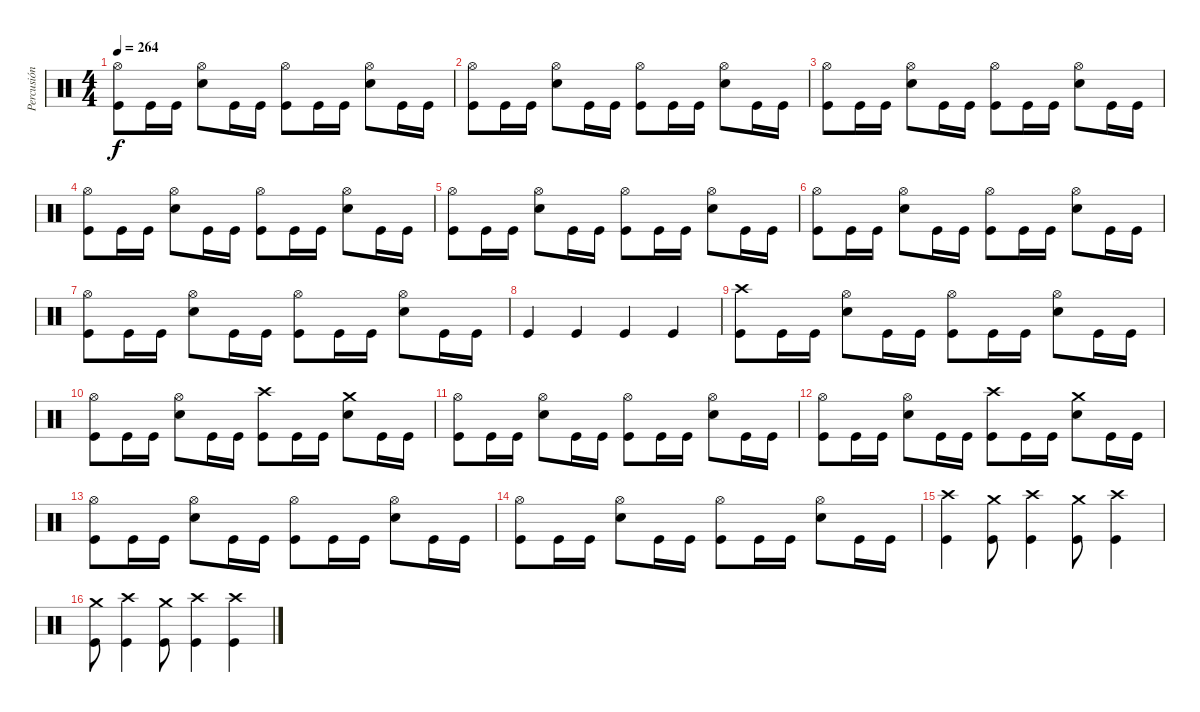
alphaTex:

\track ("Percusión" "Percusión") {instrument percussion}
\staff {score}
\articulation defaults
\ts (4 4)
\tempo 264
\clef neutral
\ks c
("Hi-Hat (open)" "Kick (hit)").8{dy f} "Kick (hit)".16 "Kick (hit)".16 ("Hi-Hat (open)" "Snare (hit) 2").8 "Kick (hit)".16 "Kick (hit)".16 ("Hi-Hat (open)" "Kick (hit)").8 "Kick (hit)".16 "Kick (hit)".16 ("Hi-Hat (open)" "Snare (hit) 2").8 "Kick (hit)".16 "Kick (hit)".16 |
("Hi-Hat (open)" "Kick (hit)").8 "Kick (hit)".16 "Kick (hit)".16 ("Hi-Hat (open)" "Snare (hit) 2").8 "Kick (hit)".16 "Kick (hit)".16 ("Hi-Hat (open)" "Kick (hit)").8 "Kick (hit)".16 "Kick (hit)".16 ("Hi-Hat (open)" "Snare (hit) 2").8 "Kick (hit)".16 "Kick (hit)".16 |
("Hi-Hat (open)" "Kick (hit)").8 "Kick (hit)".16 "Kick (hit)".16 ("Hi-Hat (open)" "Snare (hit) 2").8 "Kick (hit)".16 "Kick (hit)".16 ("Hi-Hat (open)" "Kick (hit)").8 "Kick (hit)".16 "Kick (hit)".16 ("Hi-Hat (open)" "Snare (hit) 2").8 "Kick (hit)".16 "Kick (hit)".16 |
("Hi-Hat (open)" "Kick (hit)").8 "Kick (hit)".16 "Kick (hit)".16 ("Hi-Hat (open)" "Snare (hit) 2").8 "Kick (hit)".16 "Kick (hit)".16 ("Hi-Hat (open)" "Kick (hit)").8 "Kick (hit)".16 "Kick (hit)".16 ("Hi-Hat (open)" "Snare (hit) 2").8 "Kick (hit)".16 "Kick (hit)".16 |
("Hi-Hat (open)" "Kick (hit)").8 "Kick (hit)".16 "Kick (hit)".16 ("Hi-Hat (open)" "Snare (hit) 2").8 "Kick (hit)".16 "Kick (hit)".16 ("Hi-Hat (open)" "Kick (hit)").8 "Kick (hit)".16 "Kick (hit)".16 ("Hi-Hat (open)" "Snare (hit) 2").8 "Kick (hit)".16 "Kick (hit)".16 |
("Hi-Hat (open)" "Kick (hit)").8 "Kick (hit)".16 "Kick (hit)".16 ("Hi-Hat (open)" "Snare (hit) 2").8 "Kick (hit)".16 "Kick (hit)".16 ("Hi-Hat (open)" "Kick (hit)").8 "Kick (hit)".16 "Kick (hit)".16 ("Hi-Hat (open)" "Snare (hit) 2").8 "Kick (hit)".16 "Kick (hit)".16 |
("Hi-Hat (open)" "Kick (hit)").8 "Kick (hit)".16 "Kick (hit)".16 ("Hi-Hat (open)" "Snare (hit) 2").8 "Kick (hit)".16 "Kick (hit)".16 ("Hi-Hat (open)" "Kick (hit)").8 "Kick (hit)".16 "Kick (hit)".16 ("Hi-Hat (open)" "Snare (hit) 2").8 "Kick (hit)".16 "Kick (hit)".16 |
"Kick (hit)".4 "Kick (hit)".4 "Kick (hit)".4 "Kick (hit)".4 |
("Crash high (hit)" "Kick (hit)").8 "Kick (hit)".16 "Kick (hit)".16 ("Hi-Hat (open)" "Snare (hit) 2").8 "Kick (hit)".16 "Kick (hit)".16 ("Hi-Hat (open)" "Kick (hit)").8 "Kick (hit)".16 "Kick (hit)".16 ("Hi-Hat (open)" "Snare (hit) 2").8 "Kick (hit)".16 "Kick (hit)".16 |
("Hi-Hat (open)" "Kick (hit)").8 "Kick (hit)".16 "Kick (hit)".16 ("Hi-Hat (open)" "Snare (hit) 2").8 "Kick (hit)".16 "Kick (hit)".16 ("Crash high (hit)" "Kick (hit)").8 "Kick (hit)".16 "Kick (hit)".16 ("Crash medium (hit)" "Snare (hit) 2").8 "Kick (hit)".16 "Kick (hit)".16 |
("Hi-Hat (open)" "Kick (hit)").8 "Kick (hit)".16 "Kick (hit)".16 ("Hi-Hat (open)" "Snare (hit) 2").8 "Kick (hit)".16 "Kick (hit)".16 ("Hi-Hat (open)" "Kick (hit)").8 "Kick (hit)".16 "Kick (hit)".16 ("Hi-Hat (open)" "Snare (hit) 2").8 "Kick (hit)".16 "Kick (hit)".16 |
("Hi-Hat (open)" "Kick (hit)").8 "Kick (hit)".16 "Kick (hit)".16 ("Hi-Hat (open)" "Snare (hit) 2").8 "Kick (hit)".16 "Kick (hit)".16 ("Crash high (hit)" "Kick (hit)").8 "Kick (hit)".16 "Kick (hit)".16 ("Crash medium (hit)" "Snare (hit) 2").8 "Kick (hit)".16 "Kick (hit)".16 |
("Hi-Hat (open)" "Kick (hit)").8 "Kick (hit)".16 "Kick (hit)".16 ("Hi-Hat (open)" "Snare (hit) 2").8 "Kick (hit)".16 "Kick (hit)".16 ("Hi-Hat (open)" "Kick (hit)").8 "Kick (hit)".16 "Kick (hit)".16 ("Hi-Hat (open)" "Snare (hit) 2").8 "Kick (hit)".16 "Kick (hit)".16 |
("Hi-Hat (open)" "Kick (hit)").8 "Kick (hit)".16 "Kick (hit)".16 ("Hi-Hat (open)" "Snare (hit) 2").8 "Kick (hit)".16 "Kick (hit)".16 ("Hi-Hat (open)" "Kick (hit)").8 "Kick (hit)".16 "Kick (hit)".16 ("Hi-Hat (open)" "Snare (hit) 2").8 "Kick (hit)".16 "Kick (hit)".16 |
("Crash high (hit)" "Kick (hit)").4 ("Crash medium (hit)" "Kick (hit)").8 ("Crash high (hit)" "Kick (hit)").4 ("Crash medium (hit)" "Kick (hit)").8 ("Crash high (hit)" "Kick (hit)").4 |
("Crash medium (hit)" "Kick (hit)").8 ("Crash high (hit)" "Kick (hit)").4 ("Crash medium (hit)" "Kick (hit)").8 ("Crash high (hit)" "Kick (hit)").4 ("Crash high (hit)" "Kick (hit)").4
